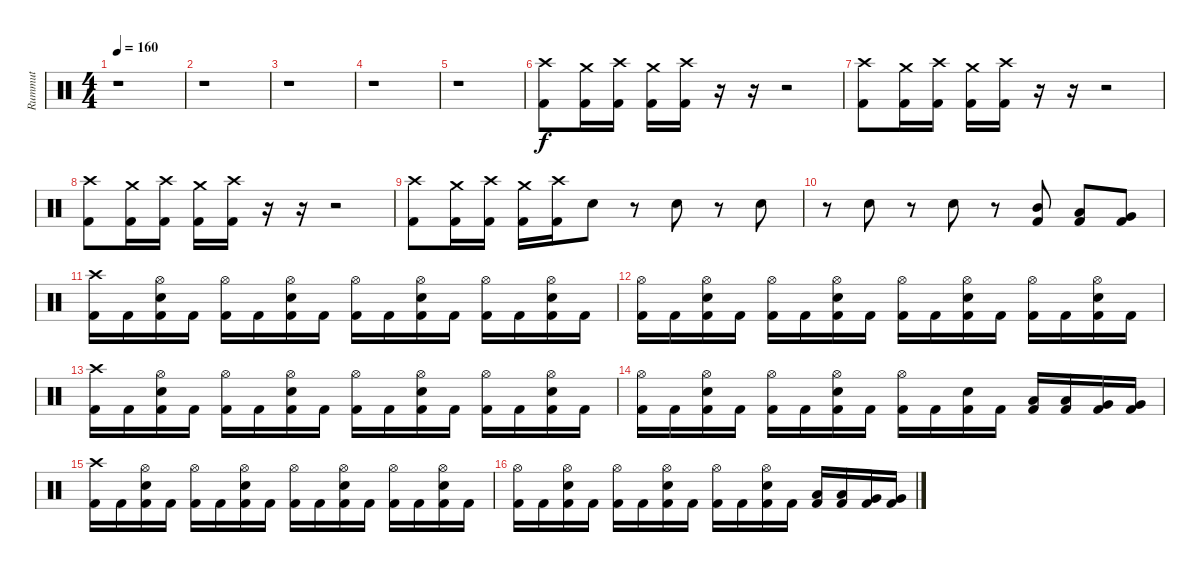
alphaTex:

\track ("Rummut" "Rummut") {instrument percussion}
\staff {score}
\articulation defaults
\ts (4 4)
\tempo 160
\clef neutral
\ks c
r.1{dy f} |
r.1 |
r.1 |
r.1 |
r.1 |
("Crash high (hit)" "Kick (hit) 2").8 ("Crash medium (hit)" "Kick (hit) 2").16 ("Crash high (hit)" "Kick (hit) 2").16 ("Crash medium (hit)" "Kick (hit) 2").16 ("Crash high (hit)" "Kick (hit) 2").16 r.16 r.16 r.2 |
("Crash high (hit)" "Kick (hit) 2").8 ("Crash medium (hit)" "Kick (hit) 2").16 ("Crash high (hit)" "Kick (hit) 2").16 ("Crash medium (hit)" "Kick (hit) 2").16 ("Crash high (hit)" "Kick (hit) 2").16 r.16 r.16 r.2 |
("Crash high (hit)" "Kick (hit) 2").8 ("Crash medium (hit)" "Kick (hit) 2").16 ("Crash high (hit)" "Kick (hit) 2").16 ("Crash medium (hit)" "Kick (hit) 2").16 ("Crash high (hit)" "Kick (hit) 2").16 r.16 r.16 r.2 |
("Crash high (hit)" "Kick (hit) 2").8 ("Crash medium (hit)" "Kick (hit) 2").16 ("Crash high (hit)" "Kick (hit) 2").16 ("Crash medium (hit)" "Kick (hit) 2").16 ("Crash high (hit)" "Kick (hit) 2").16 "Snare (hit) 2".8 r.8 "Snare (hit) 2".8 r.8 "Snare (hit) 2".8 |
r.8 "Snare (hit) 2".8 r.8 "Snare (hit) 2".8 r.8 ("Mid Tom (hit)" "Kick (hit) 2").8 ("Low Tom (hit)" "Kick (hit) 2").8 ("Very Low Tom (hit)" "Kick (hit) 2").8 |
("Crash high (hit)" "Kick (hit) 2").16 "Kick (hit) 2".16 ("Hi-Hat (open)" "Snare (hit) 2" "Kick (hit) 2").16 "Kick (hit) 2".16 ("Hi-Hat (open)" "Kick (hit) 2").16 "Kick (hit) 2".16 ("Hi-Hat (open)" "Snare (hit) 2" "Kick (hit) 2").16 "Kick (hit) 2".16 ("Hi-Hat (open)" "Kick (hit) 2").16 "Kick (hit) 2".16 ("Hi-Hat (open)" "Snare (hit) 2" "Kick (hit) 2").16 "Kick (hit) 2".16 ("Hi-Hat (open)" "Kick (hit) 2").16 "Kick (hit) 2".16 ("Hi-Hat (open)" "Snare (hit) 2" "Kick (hit) 2").16 "Kick (hit) 2".16 |
("Hi-Hat (open)" "Kick (hit) 2").16 "Kick (hit) 2".16 ("Hi-Hat (open)" "Snare (hit) 2" "Kick (hit) 2").16 "Kick (hit) 2".16 ("Hi-Hat (open)" "Kick (hit) 2").16 "Kick (hit) 2".16 ("Hi-Hat (open)" "Snare (hit) 2" "Kick (hit) 2").16 "Kick (hit) 2".16 ("Hi-Hat (open)" "Kick (hit) 2").16 "Kick (hit) 2".16 ("Hi-Hat (open)" "Snare (hit) 2" "Kick (hit) 2").16 "Kick (hit) 2".16 ("Hi-Hat (open)" "Kick (hit) 2").16 "Kick (hit) 2".16 ("Hi-Hat (open)" "Snare (hit) 2" "Kick (hit) 2").16 "Kick (hit) 2".16 |
("Crash high (hit)" "Kick (hit) 2").16 "Kick (hit) 2".16 ("Hi-Hat (open)" "Snare (hit) 2" "Kick (hit) 2").16 "Kick (hit) 2".16 ("Hi-Hat (open)" "Kick (hit) 2").16 "Kick (hit) 2".16 ("Hi-Hat (open)" "Snare (hit) 2" "Kick (hit) 2").16 "Kick (hit) 2".16 ("Hi-Hat (open)" "Kick (hit) 2").16 "Kick (hit) 2".16 ("Hi-Hat (open)" "Snare (hit) 2" "Kick (hit) 2").16 "Kick (hit) 2".16 ("Hi-Hat (open)" "Kick (hit) 2").16 "Kick (hit) 2".16 ("Hi-Hat (open)" "Snare (hit) 2" "Kick (hit) 2").16 "Kick (hit) 2".16 |
("Hi-Hat (open)" "Kick (hit) 2").16 "Kick (hit) 2".16 ("Hi-Hat (open)" "Snare (hit) 2" "Kick (hit) 2").16 "Kick (hit) 2".16 ("Hi-Hat (open)" "Kick (hit) 2").16 "Kick (hit) 2".16 ("Hi-Hat (open)" "Snare (hit) 2" "Kick (hit) 2").16 "Kick (hit) 2".16 ("Hi-Hat (open)" "Kick (hit) 2").16 "Kick (hit) 2".16 ("Snare (hit) 2" "Kick (hit) 2").16 "Kick (hit) 2".16 ("Low Tom (hit)" "Kick (hit) 2").16 ("Low Tom (hit)" "Kick (hit) 2").16 ("Very Low Tom (hit)" "Kick (hit) 2").16 ("Very Low Tom (hit)" "Kick (hit) 2").16 |
("Crash high (hit)" "Kick (hit) 2").16 "Kick (hit) 2".16 ("Hi-Hat (open)" "Snare (hit) 2" "Kick (hit) 2").16 "Kick (hit) 2".16 ("Hi-Hat (open)" "Kick (hit) 2").16 "Kick (hit) 2".16 ("Hi-Hat (open)" "Snare (hit) 2" "Kick (hit) 2").16 "Kick (hit) 2".16 ("Hi-Hat (open)" "Kick (hit) 2").16 "Kick (hit) 2".16 ("Hi-Hat (open)" "Snare (hit) 2" "Kick (hit) 2").16 "Kick (hit) 2".16 ("Hi-Hat (open)" "Kick (hit) 2").16 "Kick (hit) 2".16 ("Hi-Hat (open)" "Snare (hit) 2" "Kick (hit) 2").16 "Kick (hit) 2".16 |
("Hi-Hat (open)" "Kick (hit) 2").16 "Kick (hit) 2".16 ("Hi-Hat (open)" "Snare (hit) 2" "Kick (hit) 2").16 "Kick (hit) 2".16 ("Hi-Hat (open)" "Kick (hit) 2").16 "Kick (hit) 2".16 ("Hi-Hat (open)" "Snare (hit) 2" "Kick (hit) 2").16 "Kick (hit) 2".16 ("Hi-Hat (open)" "Kick (hit) 2").16 "Kick (hit) 2".16 ("Hi-Hat (open)" "Snare (hit) 2" "Kick (hit) 2").16 "Kick (hit) 2".16 ("Low Tom (hit)" "Kick (hit) 2").16 ("Low Tom (hit)" "Kick (hit) 2").16 ("Very Low Tom (hit)" "Kick (hit) 2").16 ("Very Low Tom (hit)" "Kick (hit) 2").16
